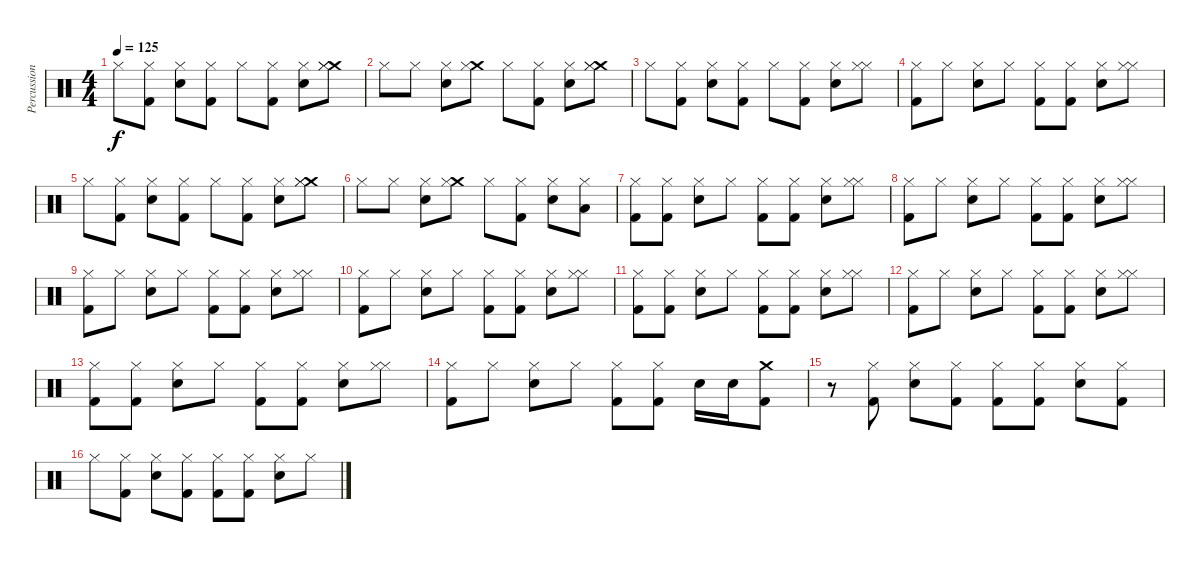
\track ("Percussion" "Percussion") {instrument percussion}
\staff {score}
\articulation defaults
\ts (4 4)
\tempo 125
\clef neutral
\ks c "Hi-Hat (closed)".8{dy f}
("Hi-Hat (closed)" "Kick (hit) 2").8 ("Hi-Hat (closed)" "Electric Snare (hit)").8 ("Hi-Hat (closed)" "Kick (hit) 2").8 "Hi-Hat (closed)".8 ("Hi-Hat (closed)" "Kick (hit) 2").8 ("Hi-Hat (closed)" "Electric Snare (hit)").8 ("Crash medium (hit)" "Hi-Hat (closed)" "Hi-Hat (closed)").8 |
"Hi-Hat (closed)".8 "Hi-Hat (closed)".8 ("Hi-Hat (closed)" "Electric Snare (hit)").8 ("Crash medium (hit)" "Hi-Hat (closed)").8 "Hi-Hat (closed)".8 ("Hi-Hat (closed)" "Kick (hit) 2").8 ("Hi-Hat (closed)" "Electric Snare (hit)").8 ("Crash medium (hit)" "Hi-Hat (closed)" "Hi-Hat (closed)").8 |
"Hi-Hat (closed)".8 ("Hi-Hat (closed)" "Kick (hit) 2").8 ("Hi-Hat (closed)" "Electric Snare (hit)").8 ("Hi-Hat (closed)" "Kick (hit) 2").8 "Hi-Hat (closed)".8 ("Hi-Hat (closed)" "Kick (hit) 2").8 ("Hi-Hat (closed)" "Electric Snare (hit)").8 ("Hi-Hat (closed)" "Hi-Hat (closed)").8 |
("Hi-Hat (closed)" "Kick (hit) 2").8 "Hi-Hat (closed)".8 ("Hi-Hat (closed)" "Electric Snare (hit)").8 "Hi-Hat (closed)".8 ("Hi-Hat (closed)" "Kick (hit) 2").8 ("Hi-Hat (closed)" "Kick (hit) 2").8 ("Hi-Hat (closed)" "Electric Snare (hit)").8 ("Hi-Hat (closed)" "Hi-Hat (closed)").8 |
"Hi-Hat (closed)".8 ("Hi-Hat (closed)" "Kick (hit) 2").8 ("Hi-Hat (closed)" "Electric Snare (hit)").8 ("Hi-Hat (closed)" "Kick (hit) 2").8 "Hi-Hat (closed)".8 ("Hi-Hat (closed)" "Kick (hit) 2").8 ("Hi-Hat (closed)" "Electric Snare (hit)").8 ("Crash medium (hit)" "Hi-Hat (closed)" "Hi-Hat (closed)").8 |
"Hi-Hat (closed)".8 "Hi-Hat (closed)".8 ("Hi-Hat (closed)" "Electric Snare (hit)").8 ("Crash medium (hit)" "Hi-Hat (closed)").8 "Hi-Hat (closed)".8 ("Hi-Hat (closed)" "Kick (hit) 2").8 ("Hi-Hat (closed)" "Electric Snare (hit)").8 ("Hi-Hat (closed)" "Low Tom (hit)").8 |
("Hi-Hat (closed)" "Kick (hit) 2").8 ("Hi-Hat (closed)" "Kick (hit) 2").8 ("Hi-Hat (closed)" "Electric Snare (hit)").8 "Hi-Hat (closed)".8 ("Hi-Hat (closed)" "Kick (hit) 2").8 ("Hi-Hat (closed)" "Kick (hit) 2").8 ("Hi-Hat (closed)" "Electric Snare (hit)").8 ("Hi-Hat (closed)" "Hi-Hat (closed)").8 |
("Hi-Hat (closed)" "Kick (hit) 2").8 "Hi-Hat (closed)".8 ("Hi-Hat (closed)" "Electric Snare (hit)").8 "Hi-Hat (closed)".8 ("Hi-Hat (closed)" "Kick (hit) 2").8 ("Hi-Hat (closed)" "Kick (hit) 2").8 ("Hi-Hat (closed)" "Electric Snare (hit)").8 ("Hi-Hat (closed)" "Hi-Hat (closed)").8 |
("Hi-Hat (closed)" "Kick (hit) 2").8 "Hi-Hat (closed)".8 ("Hi-Hat (closed)" "Electric Snare (hit)").8 "Hi-Hat (closed)".8 ("Hi-Hat (closed)" "Kick (hit) 2").8 ("Hi-Hat (closed)" "Kick (hit) 2").8 ("Hi-Hat (closed)" "Electric Snare (hit)").8 ("Hi-Hat (closed)" "Hi-Hat (closed)").8 |
("Hi-Hat (closed)" "Kick (hit) 2").8 "Hi-Hat (closed)".8 ("Hi-Hat (closed)" "Electric Snare (hit)").8 "Hi-Hat (closed)".8 ("Hi-Hat (closed)" "Kick (hit) 2").8 ("Hi-Hat (closed)" "Kick (hit) 2").8 ("Hi-Hat (closed)" "Electric Snare (hit)").8 ("Hi-Hat (closed)" "Hi-Hat (closed)").8 |
("Hi-Hat (closed)" "Kick (hit) 2").8 ("Hi-Hat (closed)" "Kick (hit) 2").8 ("Hi-Hat (closed)" "Electric Snare (hit)").8 "Hi-Hat (closed)".8 ("Hi-Hat (closed)" "Kick (hit) 2").8 ("Hi-Hat (closed)" "Kick (hit) 2").8 ("Hi-Hat (closed)" "Electric Snare (hit)").8 ("Hi-Hat (closed)" "Hi-Hat (closed)").8 |
("Hi-Hat (closed)" "Kick (hit) 2").8 "Hi-Hat (closed)".8 ("Hi-Hat (closed)" "Electric Snare (hit)").8 "Hi-Hat (closed)".8 ("Hi-Hat (closed)" "Kick (hit) 2").8 ("Hi-Hat (closed)" "Kick (hit) 2").8 ("Hi-Hat (closed)" "Electric Snare (hit)").8 ("Hi-Hat (closed)" "Hi-Hat (closed)").8 |
("Hi-Hat (closed)" "Kick (hit) 2").8 ("Hi-Hat (closed)" "Kick (hit) 2").8 ("Hi-Hat (closed)" "Electric Snare (hit)").8 "Hi-Hat (closed)".8 ("Hi-Hat (closed)" "Kick (hit) 2").8 ("Hi-Hat (closed)" "Kick (hit) 2").8 ("Hi-Hat (closed)" "Electric Snare (hit)").8 ("Hi-Hat (closed)" "Hi-Hat (closed)").8 |
("Hi-Hat (closed)" "Kick (hit) 2").8 "Hi-Hat (closed)".8 ("Hi-Hat (closed)" "Electric Snare (hit)").8 "Hi-Hat (closed)".8 ("Hi-Hat (closed)" "Kick (hit) 2").8 ("Hi-Hat (closed)" "Kick (hit) 2").8 "Electric Snare (hit)".16 "Electric Snare (hit)".16 ("Crash medium (hit)" "Kick (hit) 2").8 |
r.8 ("Hi-Hat (closed)" "Kick (hit) 2").8 ("Hi-Hat (closed)" "Electric Snare (hit)").8 ("Hi-Hat (closed)" "Kick (hit) 2").8 ("Hi-Hat (closed)" "Kick (hit) 2").8 ("Hi-Hat (closed)" "Kick (hit) 2").8 ("Hi-Hat (closed)" "Electric Snare (hit)").8 ("Hi-Hat (closed)" "Kick (hit) 2").8 |
"Hi-Hat (closed)".8 ("Hi-Hat (closed)" "Kick (hit) 2").8 ("Hi-Hat (closed)" "Electric Snare (hit)").8 ("Hi-Hat (closed)" "Kick (hit) 2").8 ("Hi-Hat (closed)" "Kick (hit) 2").8 ("Hi-Hat (closed)" "Kick (hit) 2").8 ("Hi-Hat (closed)" "Electric Snare (hit)").8 "Hi-Hat (closed)".8
